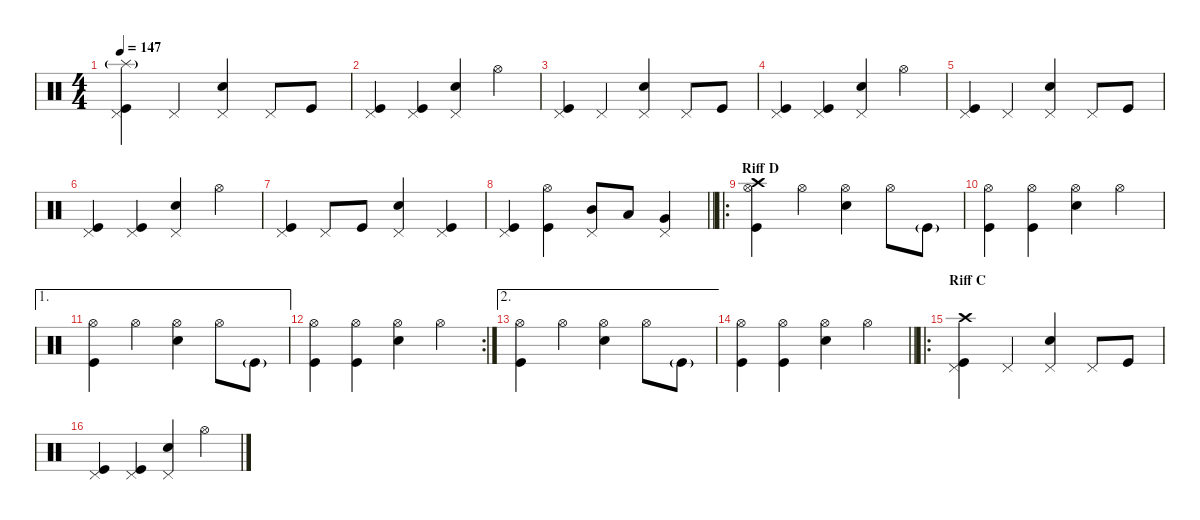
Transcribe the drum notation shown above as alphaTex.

\defaultSystemsLayout 4
\hideDynamics
\bracketExtendMode nobrackets
\singleTrackTrackNamePolicy hidden
\multiTrackTrackNamePolicy hidden
\firstSystemTrackNameMode fullname
\otherSystemsTrackNameOrientation horizontal
\track ("Percussion" "drm.") {instrument percussion}
\staff {score}
\articulation defaults
\ts (4 4)
\tempo 147
\clef neutral
\ks c
("Splash (hit)"{g} "Kick (hit)" "Pedal Hi-Hat (hit)").4{dy f beam Down} "Pedal Hi-Hat (hit)".4{beam Up} ("Snare (hit) 2" "Pedal Hi-Hat (hit)").4{beam Up} "Pedal Hi-Hat (hit)".8{beam Up} "Kick (hit)".8{beam Up} |
("Kick (hit)" "Pedal Hi-Hat (hit)").4{beam Up} ("Kick (hit)" "Pedal Hi-Hat (hit)").4{beam Up} ("Snare (hit) 2" "Pedal Hi-Hat (hit)").4{beam Up} "Hi-Hat (open)".4{beam Down} |
("Kick (hit)" "Pedal Hi-Hat (hit)").4{beam Up} "Pedal Hi-Hat (hit)".4{beam Up} ("Snare (hit) 2" "Pedal Hi-Hat (hit)").4{beam Up} "Pedal Hi-Hat (hit)".8{beam Up} "Kick (hit)".8{beam Up} |
("Kick (hit)" "Pedal Hi-Hat (hit)").4{beam Up} ("Kick (hit)" "Pedal Hi-Hat (hit)").4{beam Up} ("Snare (hit) 2" "Pedal Hi-Hat (hit)").4{beam Up} "Hi-Hat (open)".4{beam Down} |
("Kick (hit)" "Pedal Hi-Hat (hit)").4{beam Up} "Pedal Hi-Hat (hit)".4{beam Up} ("Snare (hit) 2" "Pedal Hi-Hat (hit)").4{beam Up} "Pedal Hi-Hat (hit)".8{beam Up} "Kick (hit)".8{beam Up} |
("Kick (hit)" "Pedal Hi-Hat (hit)").4{beam Up} ("Kick (hit)" "Pedal Hi-Hat (hit)").4{beam Up} ("Snare (hit) 2" "Pedal Hi-Hat (hit)").4{beam Up} "Hi-Hat (open)".4{beam Down} |
("Kick (hit)" "Pedal Hi-Hat (hit)").4{beam Up} "Pedal Hi-Hat (hit)".8{beam Up} "Kick (hit)".8{beam Up} ("Snare (hit) 2" "Pedal Hi-Hat (hit)").4{beam Up} ("Kick (hit)" "Pedal Hi-Hat (hit)").4{beam Up} |
\barLineRight lightlight
("Kick (hit)" "Pedal Hi-Hat (hit)").4{beam Up} ("Kick (hit)" "Hi-Hat (open)").4{beam Down} ("Mid Tom (hit)" "Pedal Hi-Hat (hit)").8{beam Up} "Low Tom (hit)".8{dy mf beam Up} ("Very Low Tom (hit)" "Pedal Hi-Hat (hit)").4{dy f beam Up} |
\ro
\section ("" "Riff D")
("Crash high (hit)" "Kick (hit)" "Hi-Hat (open)").4{beam Down} "Hi-Hat (open)".4{dy mf beam Down} ("Snare (hit) 2" "Hi-Hat (open)").4{dy f beam Down} "Hi-Hat (open)".8{dy mf beam Down} "Kick (hit)"{g}.8{dy f beam Down} |
("Kick (hit)" "Hi-Hat (open)").4{beam Down} ("Kick (hit)" "Hi-Hat (open)").4{beam Down} ("Snare (hit) 2" "Hi-Hat (open)").4{beam Down} "Hi-Hat (open)".4{dy mf beam Down} |
\ae 1
("Kick (hit)" "Hi-Hat (open)").4{dy f beam Down} "Hi-Hat (open)".4{dy mf beam Down} ("Snare (hit) 2" "Hi-Hat (open)").4{dy f beam Down} "Hi-Hat (open)".8{dy mf beam Down} "Kick (hit)"{g}.8{dy f beam Down} |
\rc 2
("Kick (hit)" "Hi-Hat (open)").4{beam Down} ("Kick (hit)" "Hi-Hat (open)").4{beam Down} ("Snare (hit) 2" "Hi-Hat (open)").4{beam Down} "Hi-Hat (open)".4{dy mf beam Down} |
\ae 2
("Kick (hit)" "Hi-Hat (open)").4{dy f beam Down} "Hi-Hat (open)".4{dy mf beam Down} ("Snare (hit) 2" "Hi-Hat (open)").4{dy f beam Down} "Hi-Hat (open)".8{dy mf beam Down} "Kick (hit)"{g}.8{dy f beam Down} |
\barLineRight lightlight
("Kick (hit)" "Hi-Hat (open)").4{beam Down} ("Kick (hit)" "Hi-Hat (open)").4{beam Down} ("Snare (hit) 2" "Hi-Hat (open)").4{beam Down} "Hi-Hat (open)".4{dy mf beam Down} |
\ro
\section ("" "Riff C")
("Crash high (hit)" "Kick (hit)" "Pedal Hi-Hat (hit)").4{dy f beam Down} "Pedal Hi-Hat (hit)".4{beam Up} ("Snare (hit) 2" "Pedal Hi-Hat (hit)").4{beam Up} "Pedal Hi-Hat (hit)".8{beam Up} "Kick (hit)".8{beam Up} |
("Kick (hit)" "Pedal Hi-Hat (hit)").4{beam Up} ("Kick (hit)" "Pedal Hi-Hat (hit)").4{beam Up} ("Snare (hit) 2" "Pedal Hi-Hat (hit)").4{beam Up} "Hi-Hat (open)".4{beam Down}
